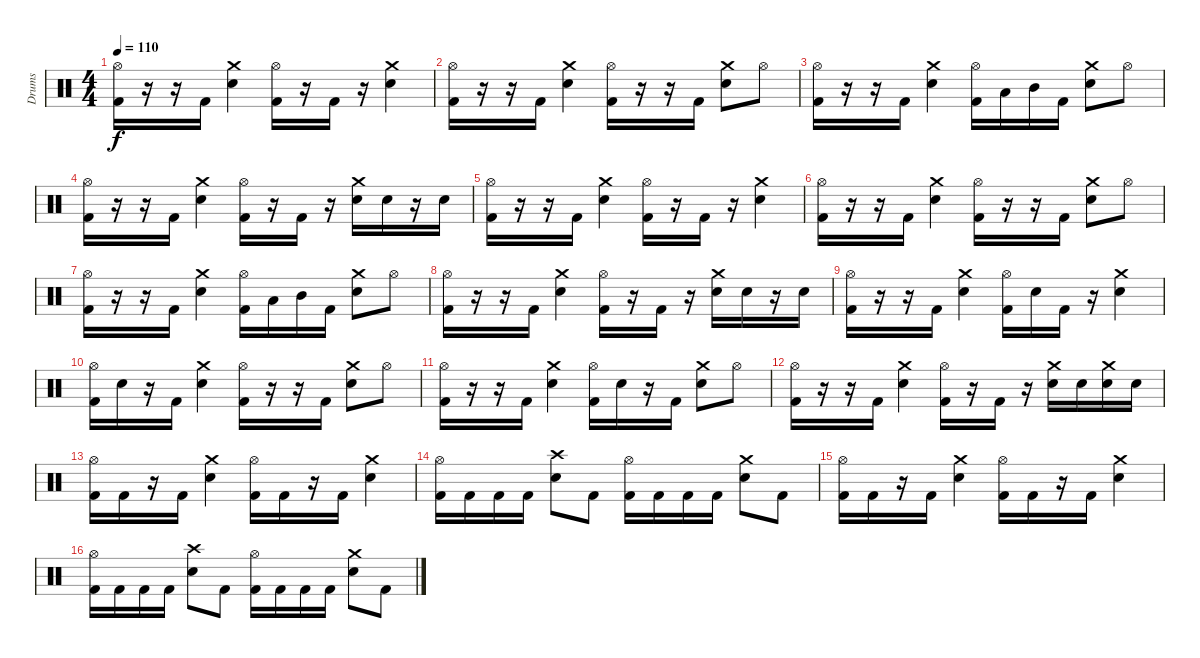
\track ("Drums" "Drums") {instrument percussion}
\staff {score}
\articulation defaults
\ts (4 4)
\tempo 110
\clef neutral
\ks c
("Hi-Hat (open)" "Kick (hit) 2").16{dy f} r.16 r.16 "Kick (hit) 2".16 ("Crash medium (hit)" "Electric Snare (hit)").4 ("Hi-Hat (open)" "Kick (hit) 2").16 r.16 "Kick (hit) 2".16 r.16 ("Crash medium (hit)" "Electric Snare (hit)").4 |
("Hi-Hat (open)" "Kick (hit) 2").16 r.16 r.16 "Kick (hit) 2".16 ("Crash medium (hit)" "Electric Snare (hit)").4 ("Hi-Hat (open)" "Kick (hit) 2").16 r.16 r.16 "Kick (hit) 2".16 ("Crash medium (hit)" "Electric Snare (hit)").8 "Hi-Hat (open)".8 |
("Hi-Hat (open)" "Kick (hit) 2").16 r.16 r.16 "Kick (hit) 2".16 ("Crash medium (hit)" "Electric Snare (hit)").4 ("Hi-Hat (open)" "Kick (hit) 2").16 "Low Tom (hit)".16 "Mid Tom (hit)".16 "Kick (hit) 2".16 ("Crash medium (hit)" "Electric Snare (hit)").8 "Hi-Hat (open)".8 |
("Hi-Hat (open)" "Kick (hit) 2").16 r.16 r.16 "Kick (hit) 2".16 ("Crash medium (hit)" "Electric Snare (hit)").4 ("Hi-Hat (open)" "Kick (hit) 2").16 r.16 "Kick (hit) 2".16 r.16 ("Crash medium (hit)" "Electric Snare (hit)").16 "Electric Snare (hit)".16 r.16 "Electric Snare (hit)".16 |
("Hi-Hat (open)" "Kick (hit) 2").16 r.16 r.16 "Kick (hit) 2".16 ("Crash medium (hit)" "Electric Snare (hit)").4 ("Hi-Hat (open)" "Kick (hit) 2").16 r.16 "Kick (hit) 2".16 r.16 ("Crash medium (hit)" "Electric Snare (hit)").4 |
("Hi-Hat (open)" "Kick (hit) 2").16 r.16 r.16 "Kick (hit) 2".16 ("Crash medium (hit)" "Electric Snare (hit)").4 ("Hi-Hat (open)" "Kick (hit) 2").16 r.16 r.16 "Kick (hit) 2".16 ("Crash medium (hit)" "Electric Snare (hit)").8 "Hi-Hat (open)".8 |
("Hi-Hat (open)" "Kick (hit) 2").16 r.16 r.16 "Kick (hit) 2".16 ("Crash medium (hit)" "Electric Snare (hit)").4 ("Hi-Hat (open)" "Kick (hit) 2").16 "Low Tom (hit)".16 "Mid Tom (hit)".16 "Kick (hit) 2".16 ("Crash medium (hit)" "Electric Snare (hit)").8 "Hi-Hat (open)".8 |
("Hi-Hat (open)" "Kick (hit) 2").16 r.16 r.16 "Kick (hit) 2".16 ("Crash medium (hit)" "Electric Snare (hit)").4 ("Hi-Hat (open)" "Kick (hit) 2").16 r.16 "Kick (hit) 2".16 r.16 ("Crash medium (hit)" "Electric Snare (hit)").16 "Electric Snare (hit)".16 r.16 "Electric Snare (hit)".16 |
("Hi-Hat (open)" "Kick (hit) 2").16 r.16 r.16 "Kick (hit) 2".16 ("Crash medium (hit)" "Electric Snare (hit)").4 ("Hi-Hat (open)" "Kick (hit) 2").16 "Electric Snare (hit)".16 "Kick (hit) 2".16 r.16 ("Crash medium (hit)" "Electric Snare (hit)").4 |
("Hi-Hat (open)" "Kick (hit) 2").16 "Electric Snare (hit)".16 r.16 "Kick (hit) 2".16 ("Crash medium (hit)" "Electric Snare (hit)").4 ("Hi-Hat (open)" "Kick (hit) 2").16 r.16 r.16 "Kick (hit) 2".16 ("Crash medium (hit)" "Electric Snare (hit)").8 "Hi-Hat (open)".8 |
("Hi-Hat (open)" "Kick (hit) 2").16 r.16 r.16 "Kick (hit) 2".16 ("Crash medium (hit)" "Electric Snare (hit)").4 ("Hi-Hat (open)" "Kick (hit) 2").16 "Electric Snare (hit)".16 r.16 "Kick (hit) 2".16 ("Crash medium (hit)" "Electric Snare (hit)").8 "Hi-Hat (open)".8 |
("Hi-Hat (open)" "Kick (hit) 2").16 r.16 r.16 "Kick (hit) 2".16 ("Crash medium (hit)" "Electric Snare (hit)").4 ("Hi-Hat (open)" "Kick (hit) 2").16 r.16 "Kick (hit) 2".16 r.16 ("Crash medium (hit)" "Electric Snare (hit)").16 "Electric Snare (hit)".16 ("Crash medium (hit)" "Electric Snare (hit)").16 "Electric Snare (hit)".16 |
("Hi-Hat (open)" "Kick (hit) 2").16 "Kick (hit) 2".16 r.16 "Kick (hit) 2".16 ("Crash medium (hit)" "Electric Snare (hit)").4 ("Hi-Hat (open)" "Kick (hit) 2").16 "Kick (hit) 2".16 r.16 "Kick (hit) 2".16 ("Crash medium (hit)" "Electric Snare (hit)").4 |
("Hi-Hat (open)" "Kick (hit) 2").16 "Kick (hit) 2".16 "Kick (hit) 2".16 "Kick (hit) 2".16 ("Crash high (hit)" "Electric Snare (hit)").8 "Kick (hit) 2".8 ("Hi-Hat (open)" "Kick (hit) 2").16 "Kick (hit) 2".16 "Kick (hit) 2".16 "Kick (hit) 2".16 ("Crash medium (hit)" "Electric Snare (hit)").8 "Kick (hit) 2".8 |
("Hi-Hat (open)" "Kick (hit) 2").16 "Kick (hit) 2".16 r.16 "Kick (hit) 2".16 ("Crash medium (hit)" "Electric Snare (hit)").4 ("Hi-Hat (open)" "Kick (hit) 2").16 "Kick (hit) 2".16 r.16 "Kick (hit) 2".16 ("Crash medium (hit)" "Electric Snare (hit)").4 |
("Hi-Hat (open)" "Kick (hit) 2").16 "Kick (hit) 2".16 "Kick (hit) 2".16 "Kick (hit) 2".16 ("Crash high (hit)" "Electric Snare (hit)").8 "Kick (hit) 2".8 ("Hi-Hat (open)" "Kick (hit) 2").16 "Kick (hit) 2".16 "Kick (hit) 2".16 "Kick (hit) 2".16 ("Crash medium (hit)" "Electric Snare (hit)").8 "Kick (hit) 2".8
